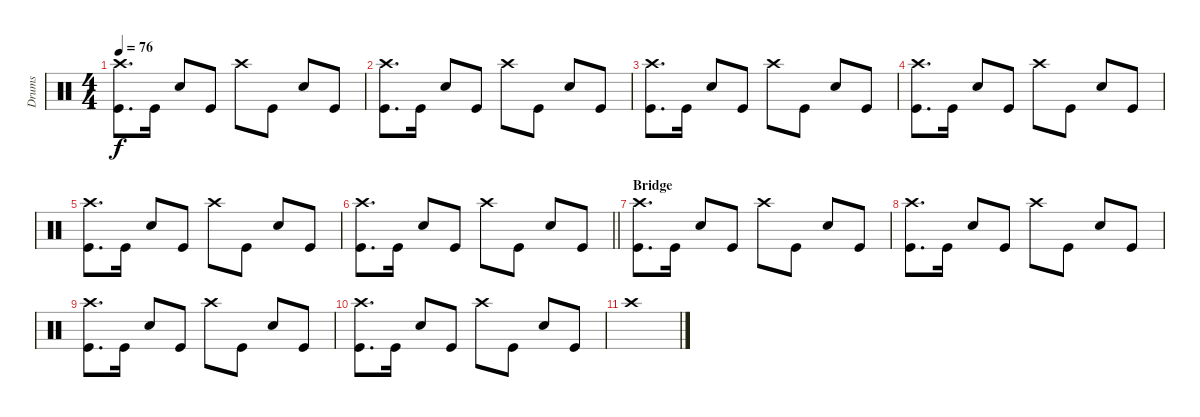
\track ("Drums" "Drums") {instrument percussion}
\staff {score}
\articulation defaults
\ts (4 4)
\tempo 76
\clef neutral
\ks c
("Crash high (hit)" "Kick (hit)").8{d dy f} "Kick (hit)".16 "Snare (hit) 2".8 "Kick (hit)".8 "Crash high (hit)".8 "Kick (hit)".8 "Snare (hit) 2".8 "Kick (hit)".8 |
("Crash high (hit)" "Kick (hit)").8{d} "Kick (hit)".16 "Snare (hit) 2".8 "Kick (hit)".8 "Crash high (hit)".8 "Kick (hit)".8 "Snare (hit) 2".8 "Kick (hit)".8 |
("Crash high (hit)" "Kick (hit)").8{d} "Kick (hit)".16 "Snare (hit) 2".8 "Kick (hit)".8 "Crash high (hit)".8 "Kick (hit)".8 "Snare (hit) 2".8 "Kick (hit)".8 |
("Crash high (hit)" "Kick (hit)").8{d} "Kick (hit)".16 "Snare (hit) 2".8 "Kick (hit)".8 "Crash high (hit)".8 "Kick (hit)".8 "Snare (hit) 2".8 "Kick (hit)".8 |
("Crash high (hit)" "Kick (hit)").8{d} "Kick (hit)".16 "Snare (hit) 2".8 "Kick (hit)".8 "Crash high (hit)".8 "Kick (hit)".8 "Snare (hit) 2".8 "Kick (hit)".8 |
\barLineRight lightlight
("Crash high (hit)" "Kick (hit)").8{d} "Kick (hit)".16 "Snare (hit) 2".8 "Kick (hit)".8 "Crash high (hit)".8 "Kick (hit)".8 "Snare (hit) 2".8 "Kick (hit)".8 |
\section ("" "Bridge")
("Crash high (hit)" "Kick (hit)").8{d} "Kick (hit)".16 "Snare (hit) 2".8 "Kick (hit)".8 "Crash high (hit)".8 "Kick (hit)".8 "Snare (hit) 2".8 "Kick (hit)".8 |
("Crash high (hit)" "Kick (hit)").8{d} "Kick (hit)".16 "Snare (hit) 2".8 "Kick (hit)".8 "Crash high (hit)".8 "Kick (hit)".8 "Snare (hit) 2".8 "Kick (hit)".8 |
("Crash high (hit)" "Kick (hit)").8{d} "Kick (hit)".16 "Snare (hit) 2".8 "Kick (hit)".8 "Crash high (hit)".8 "Kick (hit)".8 "Snare (hit) 2".8 "Kick (hit)".8 |
("Crash high (hit)" "Kick (hit)").8{d} "Kick (hit)".16 "Snare (hit) 2".8 "Kick (hit)".8 "Crash high (hit)".8 "Kick (hit)".8 "Snare (hit) 2".8 "Kick (hit)".8 |
"Crash high (hit)".1
